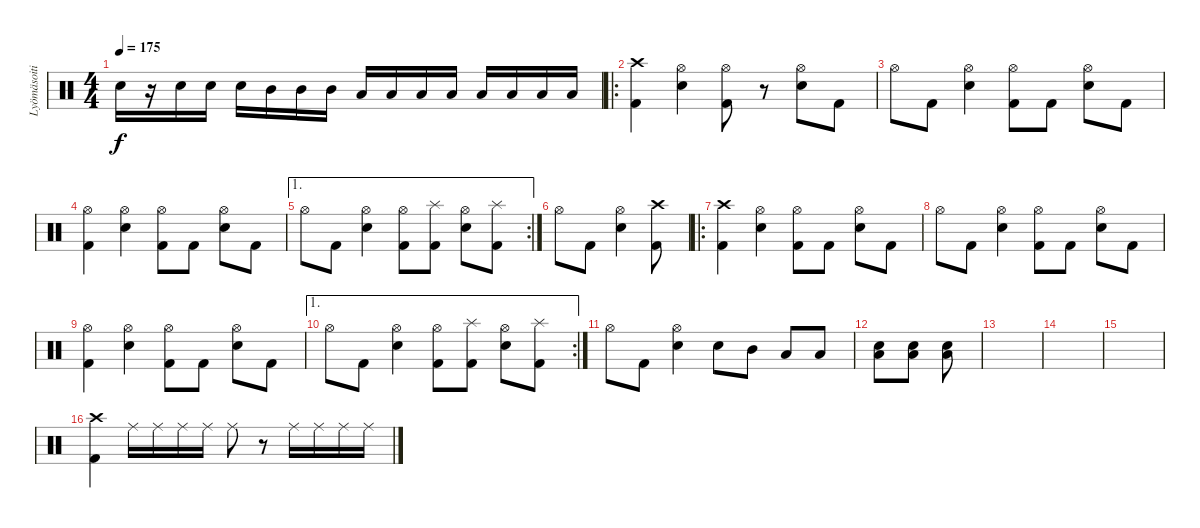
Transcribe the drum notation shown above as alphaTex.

\track ("Lyömäsoitin" "Lyömäsoiti") {instrument percussion}
\staff {score}
\articulation defaults
\ts (4 4)
\tempo 175
\clef neutral
\ks c "Electric Snare (hit)".16{dy f}
r.16 "Electric Snare (hit)".16 "Electric Snare (hit)".16 "Electric Snare (hit)".16 "Mid Tom (hit)".16 "Mid Tom (hit)".16 "Mid Tom (hit)".16 "Low Tom (hit)".16 "Low Tom (hit)".16 "Low Tom (hit)".16 "Low Tom (hit)".16 "Low Floor Tom (hit)".16 "Low Floor Tom (hit)".16 "Low Floor Tom (hit)".16 "Low Floor Tom (hit)".16 |
\ro
("Kick (hit) 2" "Crash high (hit)").4 ("Electric Snare (hit)" "Hi-Hat (open)").4 ("Kick (hit) 2" "Hi-Hat (open)").8 r.8 ("Electric Snare (hit)" "Hi-Hat (open)").8 "Kick (hit) 2".8 |
"Hi-Hat (open)".8 "Kick (hit) 2".8 ("Electric Snare (hit)" "Hi-Hat (open)").4 ("Kick (hit) 2" "Hi-Hat (open)").8 "Kick (hit) 2".8 ("Electric Snare (hit)" "Hi-Hat (open)").8 "Kick (hit) 2".8 |
("Kick (hit) 2" "Hi-Hat (open)").4 ("Electric Snare (hit)" "Hi-Hat (open)").4 ("Kick (hit) 2" "Hi-Hat (open)").8 "Kick (hit) 2".8 ("Electric Snare (hit)" "Hi-Hat (open)").8 "Kick (hit) 2".8 |
\ae 1
\rc 2 "Hi-Hat (open)".8 "Kick (hit) 2".8
("Electric Snare (hit)" "Hi-Hat (open)").4 ("Kick (hit) 2" "Hi-Hat (open)").8 ("Kick (hit) 2" "Splash (hit)").8 ("Electric Snare (hit)" "Hi-Hat (open)").8 ("Kick (hit) 2" "Splash (hit)").8 |
"Hi-Hat (open)".8 "Kick (hit) 2".8 ("Electric Snare (hit)" "Hi-Hat (open)").4 ("Kick (hit) 2" "Crash high (hit)").8 |
\ro
("Kick (hit) 2" "Crash high (hit)").4 ("Electric Snare (hit)" "Hi-Hat (open)").4 ("Kick (hit) 2" "Hi-Hat (open)").8 "Kick (hit) 2".8 ("Electric Snare (hit)" "Hi-Hat (open)").8 "Kick (hit) 2".8 |
"Hi-Hat (open)".8 "Kick (hit) 2".8 ("Electric Snare (hit)" "Hi-Hat (open)").4 ("Kick (hit) 2" "Hi-Hat (open)").8 "Kick (hit) 2".8 ("Electric Snare (hit)" "Hi-Hat (open)").8 "Kick (hit) 2".8 |
("Kick (hit) 2" "Hi-Hat (open)").4 ("Electric Snare (hit)" "Hi-Hat (open)").4 ("Kick (hit) 2" "Hi-Hat (open)").8 "Kick (hit) 2".8 ("Electric Snare (hit)" "Hi-Hat (open)").8 "Kick (hit) 2".8 |
\ae 1
\rc 2 "Hi-Hat (open)".8 "Kick (hit) 2".8
("Electric Snare (hit)" "Hi-Hat (open)").4 ("Kick (hit) 2" "Hi-Hat (open)").8 ("Kick (hit) 2" "Splash (hit)").8 ("Electric Snare (hit)" "Hi-Hat (open)").8 ("Kick (hit) 2" "Splash (hit)").8 |
"Hi-Hat (open)".8 "Kick (hit) 2".8 ("Electric Snare (hit)" "Hi-Hat (open)").4 "Electric Snare (hit)".8 "Mid Tom (hit)".8 "Low Tom (hit)".8 "Low Floor Tom (hit)".8 |
("Electric Snare (hit)" "Low Floor Tom (hit)").8 ("Electric Snare (hit)" "Low Floor Tom (hit)").8 ("Electric Snare (hit)" "Low Floor Tom (hit)").8 |
|
|
|
("Kick (hit) 2" "Crash high (hit)").4 "Ride (middle)".16 "Ride (middle)".16 "Ride (middle)".16 "Ride (middle)".16 "Ride (middle)".8 r.8 "Ride (middle)".16 "Ride (middle)".16 "Ride (middle)".16 "Ride (middle)".16
